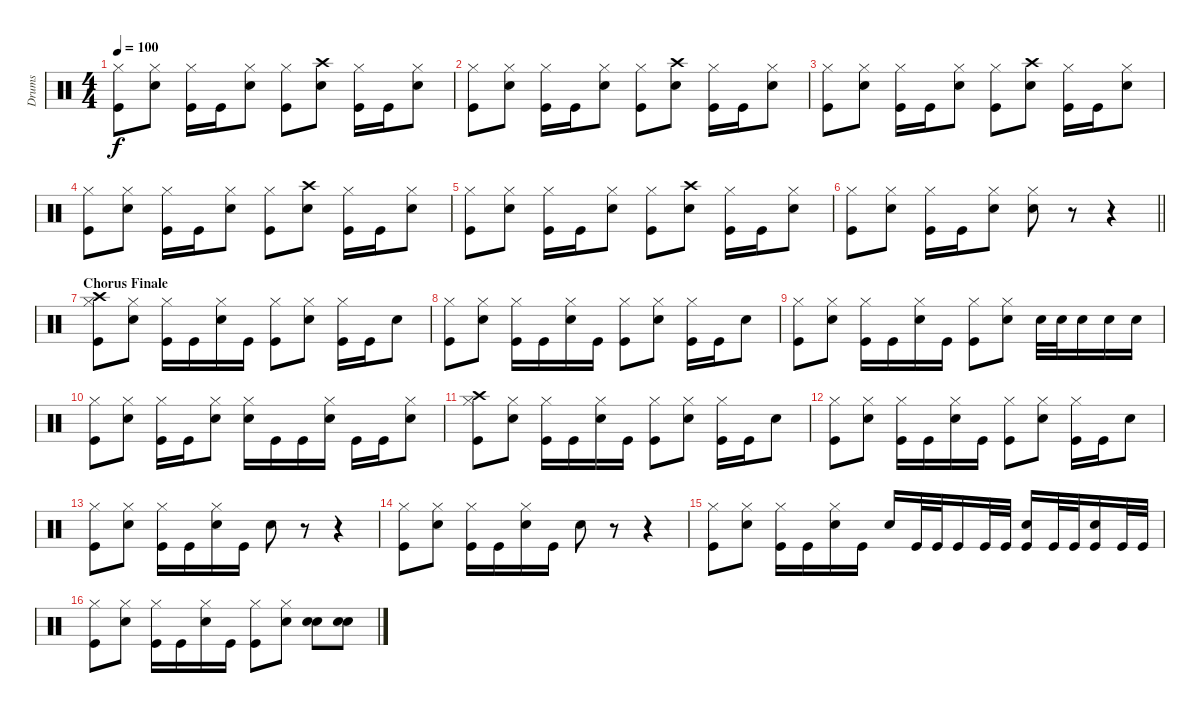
\track ("Drums" "Drums") {instrument percussion}
\staff {score}
\articulation defaults
\ts (4 4)
\tempo 100
\clef neutral
\ks c
("Hi-Hat (closed)" "Kick (hit)").8{dy f} ("Hi-Hat (closed)" "Snare (hit) 2").8 ("Hi-Hat (closed)" "Kick (hit)").16 "Kick (hit)".16 ("Hi-Hat (closed)" "Snare (hit) 2").8 ("Hi-Hat (closed)" "Kick (hit)").8 ("Crash high (hit)" "Snare (hit) 2").8 ("Hi-Hat (closed)" "Kick (hit)").16 "Kick (hit)".16 ("Hi-Hat (closed)" "Snare (hit) 2").8 |
("Hi-Hat (closed)" "Kick (hit)").8 ("Hi-Hat (closed)" "Snare (hit) 2").8 ("Hi-Hat (closed)" "Kick (hit)").16 "Kick (hit)".16 ("Hi-Hat (closed)" "Snare (hit) 2").8 ("Hi-Hat (closed)" "Kick (hit)").8 ("Crash high (hit)" "Snare (hit) 2").8 ("Hi-Hat (closed)" "Kick (hit)").16 "Kick (hit)".16 ("Hi-Hat (closed)" "Snare (hit) 2").8 |
("Hi-Hat (closed)" "Kick (hit)").8 ("Hi-Hat (closed)" "Snare (hit) 2").8 ("Hi-Hat (closed)" "Kick (hit)").16 "Kick (hit)".16 ("Hi-Hat (closed)" "Snare (hit) 2").8 ("Hi-Hat (closed)" "Kick (hit)").8 ("Crash high (hit)" "Snare (hit) 2").8 ("Hi-Hat (closed)" "Kick (hit)").16 "Kick (hit)".16 ("Hi-Hat (closed)" "Snare (hit) 2").8 |
("Hi-Hat (closed)" "Kick (hit)").8 ("Hi-Hat (closed)" "Snare (hit) 2").8 ("Hi-Hat (closed)" "Kick (hit)").16 "Kick (hit)".16 ("Hi-Hat (closed)" "Snare (hit) 2").8 ("Hi-Hat (closed)" "Kick (hit)").8 ("Crash high (hit)" "Snare (hit) 2").8 ("Hi-Hat (closed)" "Kick (hit)").16 "Kick (hit)".16 ("Hi-Hat (closed)" "Snare (hit) 2").8 |
("Hi-Hat (closed)" "Kick (hit)").8 ("Hi-Hat (closed)" "Snare (hit) 2").8 ("Hi-Hat (closed)" "Kick (hit)").16 "Kick (hit)".16 ("Hi-Hat (closed)" "Snare (hit) 2").8 ("Hi-Hat (closed)" "Kick (hit)").8 ("Crash high (hit)" "Snare (hit) 2").8 ("Hi-Hat (closed)" "Kick (hit)").16 "Kick (hit)".16 ("Hi-Hat (closed)" "Snare (hit) 2").8 |
\barLineRight lightlight
("Hi-Hat (closed)" "Kick (hit)").8 ("Hi-Hat (closed)" "Snare (hit) 2").8 ("Hi-Hat (closed)" "Kick (hit)").16 "Kick (hit)".16 ("Hi-Hat (closed)" "Snare (hit) 2").8 ("Hi-Hat (closed)" "Snare (hit) 2").8 r.8 r.4 |
\section ("" "Chorus Finale")
("Hi-Hat (closed)" "Crash high (hit)" "Kick (hit)").8 ("Hi-Hat (closed)" "Snare (hit) 2").8 ("Hi-Hat (closed)" "Kick (hit)").16 "Kick (hit)".16 ("Hi-Hat (closed)" "Snare (hit) 2").16 "Kick (hit)".16 ("Hi-Hat (closed)" "Kick (hit)").8 ("Hi-Hat (closed)" "Snare (hit) 2").8 ("Hi-Hat (closed)" "Kick (hit)").16 "Kick (hit)".16 "Snare (hit) 2".8 |
("Hi-Hat (closed)" "Kick (hit)").8 ("Hi-Hat (closed)" "Snare (hit) 2").8 ("Hi-Hat (closed)" "Kick (hit)").16 "Kick (hit)".16 ("Hi-Hat (closed)" "Snare (hit) 2").16 "Kick (hit)".16 ("Hi-Hat (closed)" "Kick (hit)").8 ("Hi-Hat (closed)" "Snare (hit) 2").8 ("Hi-Hat (closed)" "Kick (hit)").16 "Kick (hit)".16 "Snare (hit) 2".8 |
("Hi-Hat (closed)" "Kick (hit)").8 ("Hi-Hat (closed)" "Snare (hit) 2").8 ("Hi-Hat (closed)" "Kick (hit)").16 "Kick (hit)".16 ("Hi-Hat (closed)" "Snare (hit) 2").16 "Kick (hit)".16 ("Hi-Hat (closed)" "Kick (hit)").8 ("Hi-Hat (closed)" "Snare (hit) 2").8 "Snare (hit) 2".32 "Snare (hit) 2".32 "Snare (hit) 2".16 "Snare (hit) 2".16 "Snare (hit) 2".16 |
("Hi-Hat (closed)" "Kick (hit)").8 ("Hi-Hat (closed)" "Snare (hit) 2").8 ("Hi-Hat (closed)" "Kick (hit)").16 "Kick (hit)".16 ("Hi-Hat (closed)" "Snare (hit) 2").8 ("Hi-Hat (closed)" "Snare (hit) 2").16 "Kick (hit)".16 "Kick (hit)".16 ("Hi-Hat (closed)" "Snare (hit) 2").16 "Kick (hit)".16 "Kick (hit)".16 ("Hi-Hat (closed)" "Snare (hit) 2").8 |
("Hi-Hat (closed)" "Crash high (hit)" "Kick (hit)").8 ("Hi-Hat (closed)" "Snare (hit) 2").8 ("Hi-Hat (closed)" "Kick (hit)").16 "Kick (hit)".16 ("Hi-Hat (closed)" "Snare (hit) 2").16 "Kick (hit)".16 ("Hi-Hat (closed)" "Kick (hit)").8 ("Hi-Hat (closed)" "Snare (hit) 2").8 ("Hi-Hat (closed)" "Kick (hit)").16 "Kick (hit)".16 "Snare (hit) 2".8 |
("Hi-Hat (closed)" "Kick (hit)").8 ("Hi-Hat (closed)" "Snare (hit) 2").8 ("Hi-Hat (closed)" "Kick (hit)").16 "Kick (hit)".16 ("Hi-Hat (closed)" "Snare (hit) 2").16 "Kick (hit)".16 ("Hi-Hat (closed)" "Kick (hit)").8 ("Hi-Hat (closed)" "Snare (hit) 2").8 ("Hi-Hat (closed)" "Kick (hit)").16 "Kick (hit)".16 "Snare (hit) 2".8 |
("Hi-Hat (closed)" "Kick (hit)").8 ("Hi-Hat (closed)" "Snare (hit) 2").8 ("Hi-Hat (closed)" "Kick (hit)").16 "Kick (hit)".16 ("Hi-Hat (closed)" "Snare (hit) 2").16 "Kick (hit)".16 "Snare (hit) 2".8 r.8 r.4 |
("Hi-Hat (closed)" "Kick (hit)").8 ("Hi-Hat (closed)" "Snare (hit) 2").8 ("Hi-Hat (closed)" "Kick (hit)").16 "Kick (hit)".16 ("Hi-Hat (closed)" "Snare (hit) 2").16 "Kick (hit)".16 "Snare (hit) 2".8 r.8 r.4 |
("Hi-Hat (closed)" "Kick (hit)").8 ("Hi-Hat (closed)" "Snare (hit) 2").8 ("Hi-Hat (closed)" "Kick (hit)").16 "Kick (hit)".16 ("Hi-Hat (closed)" "Snare (hit) 2").16 "Kick (hit)".16 "Snare (hit) 2".16 "Kick (hit)".32 "Kick (hit)".32 "Kick (hit)".16 "Kick (hit)".32 "Kick (hit)".32 ("Snare (hit) 2" "Kick (hit)").16 "Kick (hit)".32 "Kick (hit)".32 ("Snare (hit) 2" "Kick (hit)").16 "Kick (hit)".32 "Kick (hit)".32 |
("Hi-Hat (closed)" "Kick (hit)").8 ("Hi-Hat (closed)" "Snare (hit) 2").8 ("Hi-Hat (closed)" "Kick (hit)").16 "Kick (hit)".16 ("Hi-Hat (closed)" "Snare (hit) 2").16 "Kick (hit)".16 ("Hi-Hat (closed)" "Kick (hit)").8 ("Hi-Hat (closed)" "Snare (hit) 2").8 ("Snare (hit) 2" "Snare (hit) 2").8 ("Snare (hit) 2" "Snare (hit) 2").8
